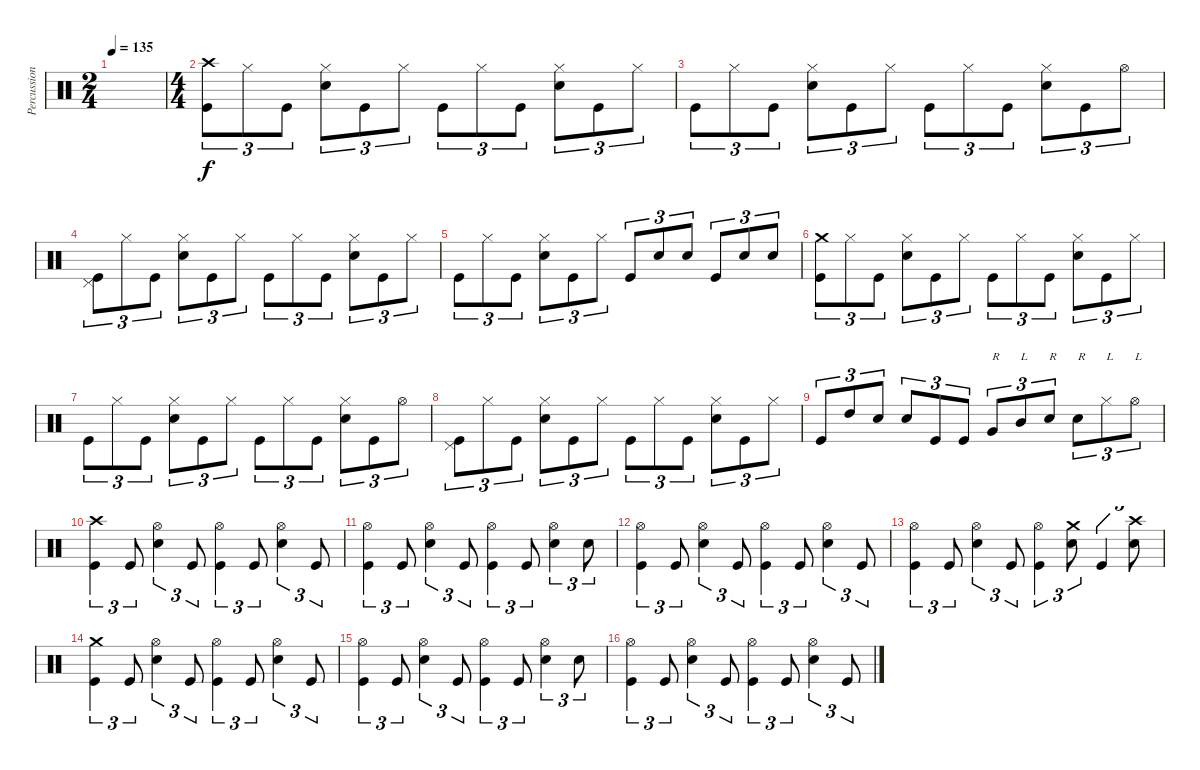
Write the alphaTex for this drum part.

\track ("Percussion" "Percussion") {instrument percussion}
\staff {score}
\articulation defaults
\ts (2 4)
\tempo 135
\clef neutral
\ks c
|
\ts (4 4)
("Crash high (hit)" "Kick (hit)").8{tu (3 2)} "Hi-Hat (closed)".8{tu (3 2)} "Kick (hit)".8{tu (3 2)} ("Hi-Hat (closed)" "Snare (hit) 2").8{tu (3 2)} "Kick (hit)".8{tu (3 2)} "Hi-Hat (closed)".8{tu (3 2)} "Kick (hit)".8{tu (3 2)} "Hi-Hat (closed)".8{tu (3 2)} "Kick (hit)".8{tu (3 2)} ("Hi-Hat (closed)" "Snare (hit) 2").8{tu (3 2)} "Kick (hit)".8{tu (3 2)} "Hi-Hat (closed)".8{tu (3 2)} |
"Kick (hit)".8{tu (3 2)} "Hi-Hat (closed)".8{tu (3 2)} "Kick (hit)".8{tu (3 2)} ("Hi-Hat (closed)" "Snare (hit) 2").8{tu (3 2)} "Kick (hit)".8{tu (3 2)} "Hi-Hat (closed)".8{tu (3 2)} "Kick (hit)".8{tu (3 2)} "Hi-Hat (closed)".8{tu (3 2)} "Kick (hit)".8{tu (3 2)} ("Hi-Hat (closed)" "Snare (hit) 2").8{tu (3 2)} "Kick (hit)".8{tu (3 2)} "Hi-Hat (open)".8{tu (3 2)} |
("Pedal Hi-Hat (hit)" "Kick (hit)").8{tu (3 2)} "Hi-Hat (closed)".8{tu (3 2)} "Kick (hit)".8{tu (3 2)} ("Hi-Hat (closed)" "Snare (hit) 2").8{tu (3 2)} "Kick (hit)".8{tu (3 2)} "Hi-Hat (closed)".8{tu (3 2)} "Kick (hit)".8{tu (3 2)} "Hi-Hat (closed)".8{tu (3 2)} "Kick (hit)".8{tu (3 2)} ("Hi-Hat (closed)" "Snare (hit) 2").8{tu (3 2)} "Kick (hit)".8{tu (3 2)} "Hi-Hat (closed)".8{tu (3 2)} |
"Kick (hit)".8{tu (3 2)} "Hi-Hat (closed)".8{tu (3 2)} "Kick (hit)".8{tu (3 2)} ("Hi-Hat (closed)" "Snare (hit) 2").8{tu (3 2)} "Kick (hit)".8{tu (3 2)} "Hi-Hat (closed)".8{tu (3 2)} "Kick (hit)".8{tu (3 2)} "Snare (hit) 2".8{tu (3 2)} "Snare (hit) 2".8{tu (3 2)} "Kick (hit)".8{tu (3 2)} "Snare (hit) 2".8{tu (3 2)} "Snare (hit) 2".8{tu (3 2)} |
("Crash medium (hit)" "Kick (hit)").8{tu (3 2)} "Hi-Hat (closed)".8{tu (3 2)} "Kick (hit)".8{tu (3 2)} ("Hi-Hat (closed)" "Snare (hit) 2").8{tu (3 2)} "Kick (hit)".8{tu (3 2)} "Hi-Hat (closed)".8{tu (3 2)} "Kick (hit)".8{tu (3 2)} "Hi-Hat (closed)".8{tu (3 2)} "Kick (hit)".8{tu (3 2)} ("Hi-Hat (closed)" "Snare (hit) 2").8{tu (3 2)} "Kick (hit)".8{tu (3 2)} "Hi-Hat (closed)".8{tu (3 2)} |
"Kick (hit)".8{tu (3 2)} "Hi-Hat (closed)".8{tu (3 2)} "Kick (hit)".8{tu (3 2)} ("Hi-Hat (closed)" "Snare (hit) 2").8{tu (3 2)} "Kick (hit)".8{tu (3 2)} "Hi-Hat (closed)".8{tu (3 2)} "Kick (hit)".8{tu (3 2)} "Hi-Hat (closed)".8{tu (3 2)} "Kick (hit)".8{tu (3 2)} ("Hi-Hat (closed)" "Snare (hit) 2").8{tu (3 2)} "Kick (hit)".8{tu (3 2)} "Hi-Hat (open)".8{tu (3 2)} |
("Pedal Hi-Hat (hit)" "Kick (hit)").8{tu (3 2)} "Hi-Hat (closed)".8{tu (3 2)} "Kick (hit)".8{tu (3 2)} ("Hi-Hat (closed)" "Snare (hit) 2").8{tu (3 2)} "Kick (hit)".8{tu (3 2)} "Hi-Hat (closed)".8{tu (3 2)} "Kick (hit)".8{tu (3 2)} "Hi-Hat (closed)".8{tu (3 2)} "Kick (hit)".8{tu (3 2)} ("Hi-Hat (closed)" "Snare (hit) 2").8{tu (3 2)} "Kick (hit)".8{tu (3 2)} "Hi-Hat (closed)".8{tu (3 2)} |
"Kick (hit)".8{tu (3 2)} "High Tom (hit)".8{tu (3 2)} "Snare (hit) 2".8{tu (3 2)} "Snare (hit) 2".8{tu (3 2)} "Kick (hit)".8{tu (3 2)} "Kick (hit)".8{tu (3 2)} "Very Low Tom (hit)".8{tu (3 2) txt "R"} "Mid Tom (hit)".8{tu (3 2) txt "L"} "Snare (hit) 2".8{tu (3 2) txt "R"} "Snare (hit) 2".8{tu (3 2) txt "R"} "Hi-Hat (closed)".8{tu (3 2) txt "L"} "Hi-Hat (open)".8{tu (3 2) txt "L"} |
("Crash high (hit)" "Kick (hit)").4{tu (3 2)} "Kick (hit)".8{tu (3 2)} ("Hi-Hat (open)" "Snare (hit) 2").4{tu (3 2)} "Kick (hit)".8{tu (3 2)} ("Hi-Hat (open)" "Kick (hit)").4{tu (3 2)} "Kick (hit)".8{tu (3 2)} ("Hi-Hat (open)" "Snare (hit) 2").4{tu (3 2)} "Kick (hit)".8{tu (3 2)} |
("Hi-Hat (open)" "Kick (hit)").4{tu (3 2)} "Kick (hit)".8{tu (3 2)} ("Hi-Hat (open)" "Snare (hit) 2").4{tu (3 2)} "Kick (hit)".8{tu (3 2)} ("Hi-Hat (open)" "Kick (hit)").4{tu (3 2)} "Kick (hit)".8{tu (3 2)} ("Hi-Hat (open)" "Snare (hit) 2").4{tu (3 2)} "Snare (hit) 2".8{tu (3 2)} |
("Hi-Hat (open)" "Kick (hit)").4{tu (3 2)} "Kick (hit)".8{tu (3 2)} ("Hi-Hat (open)" "Snare (hit) 2").4{tu (3 2)} "Kick (hit)".8{tu (3 2)} ("Hi-Hat (open)" "Kick (hit)").4{tu (3 2)} "Kick (hit)".8{tu (3 2)} ("Hi-Hat (open)" "Snare (hit) 2").4{tu (3 2)} "Kick (hit)".8{tu (3 2)} |
("Hi-Hat (open)" "Kick (hit)").4{tu (3 2)} "Kick (hit)".8{tu (3 2)} ("Hi-Hat (open)" "Snare (hit) 2").4{tu (3 2)} "Kick (hit)".8{tu (3 2)} ("Hi-Hat (open)" "Kick (hit)").4{tu (3 2)} ("Crash medium (hit)" "Snare (hit) 2").8{tu (3 2)} "Kick (hit)".4{tu (3 2)} ("Crash high (hit)" "Snare (hit) 2").8{tu (3 2)} |
("Crash medium (hit)" "Kick (hit)").4{tu (3 2)} "Kick (hit)".8{tu (3 2)} ("Hi-Hat (open)" "Snare (hit) 2").4{tu (3 2)} "Kick (hit)".8{tu (3 2)} ("Hi-Hat (open)" "Kick (hit)").4{tu (3 2)} "Kick (hit)".8{tu (3 2)} ("Hi-Hat (open)" "Snare (hit) 2").4{tu (3 2)} "Kick (hit)".8{tu (3 2)} |
("Hi-Hat (open)" "Kick (hit)").4{tu (3 2)} "Kick (hit)".8{tu (3 2)} ("Hi-Hat (open)" "Snare (hit) 2").4{tu (3 2)} "Kick (hit)".8{tu (3 2)} ("Hi-Hat (open)" "Kick (hit)").4{tu (3 2)} "Kick (hit)".8{tu (3 2)} ("Hi-Hat (open)" "Snare (hit) 2").4{tu (3 2)} "Snare (hit) 2".8{tu (3 2)} |
("Hi-Hat (open)" "Kick (hit)").4{tu (3 2)} "Kick (hit)".8{tu (3 2)} ("Hi-Hat (open)" "Snare (hit) 2").4{tu (3 2)} "Kick (hit)".8{tu (3 2)} ("Hi-Hat (open)" "Kick (hit)").4{tu (3 2)} "Kick (hit)".8{tu (3 2)} ("Hi-Hat (open)" "Snare (hit) 2").4{tu (3 2)} "Kick (hit)".8{tu (3 2)}
